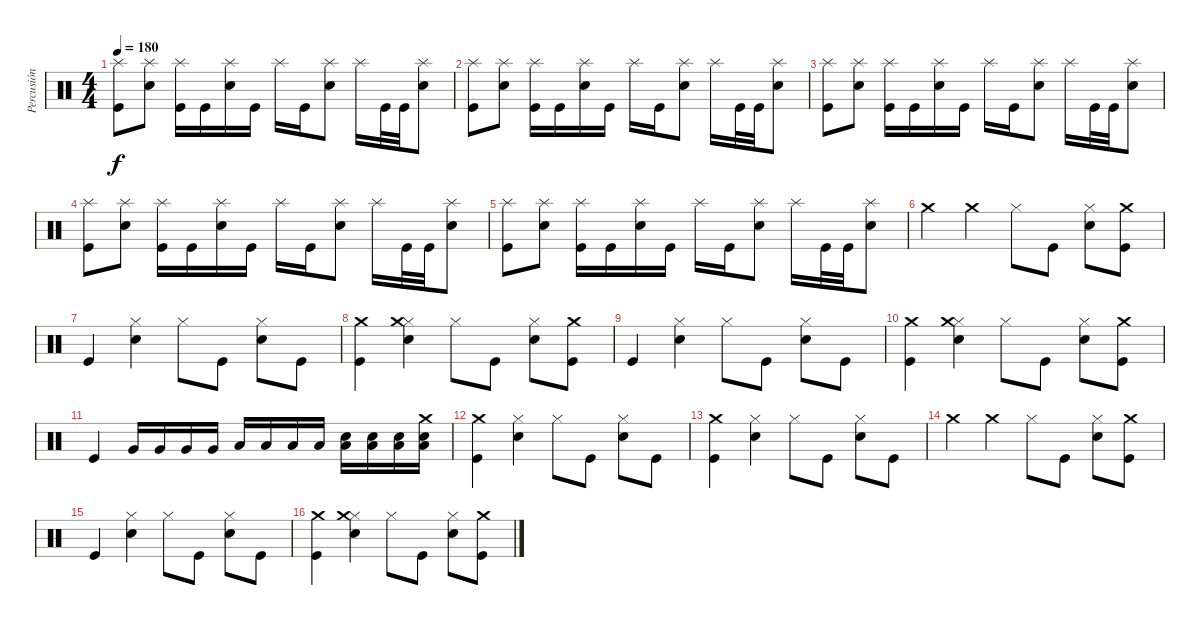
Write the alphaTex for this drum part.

\track ("Percusión" "Percusión") {instrument percussion}
\staff {score}
\articulation defaults
\ts (4 4)
\tempo 180
\clef neutral
\ks c
("Splash (hit)" "Kick (hit)").8{dy f} ("Splash (hit)" "Electric Snare (hit)").8 ("Splash (hit)" "Kick (hit)").16 "Kick (hit)".16 ("Splash (hit)" "Electric Snare (hit)").16 "Kick (hit)".16 "Splash (hit)".16 "Kick (hit)".16 ("Splash (hit)" "Electric Snare (hit)").8 "Splash (hit)".16 "Kick (hit)".32 "Kick (hit)".32 ("Splash (hit)" "Electric Snare (hit)").8 |
("Splash (hit)" "Kick (hit)").8 ("Splash (hit)" "Electric Snare (hit)").8 ("Splash (hit)" "Kick (hit)").16 "Kick (hit)".16 ("Splash (hit)" "Electric Snare (hit)").16 "Kick (hit)".16 "Splash (hit)".16 "Kick (hit)".16 ("Splash (hit)" "Electric Snare (hit)").8 "Splash (hit)".16 "Kick (hit)".32 "Kick (hit)".32 ("Splash (hit)" "Electric Snare (hit)").8 |
("Splash (hit)" "Kick (hit)").8 ("Splash (hit)" "Electric Snare (hit)").8 ("Splash (hit)" "Kick (hit)").16 "Kick (hit)".16 ("Splash (hit)" "Electric Snare (hit)").16 "Kick (hit)".16 "Splash (hit)".16 "Kick (hit)".16 ("Splash (hit)" "Electric Snare (hit)").8 "Splash (hit)".16 "Kick (hit)".32 "Kick (hit)".32 ("Splash (hit)" "Electric Snare (hit)").8 |
("Splash (hit)" "Kick (hit)").8 ("Splash (hit)" "Electric Snare (hit)").8 ("Splash (hit)" "Kick (hit)").16 "Kick (hit)".16 ("Splash (hit)" "Electric Snare (hit)").16 "Kick (hit)".16 "Splash (hit)".16 "Kick (hit)".16 ("Splash (hit)" "Electric Snare (hit)").8 "Splash (hit)".16 "Kick (hit)".32 "Kick (hit)".32 ("Splash (hit)" "Electric Snare (hit)").8 |
("Splash (hit)" "Kick (hit)").8 ("Splash (hit)" "Electric Snare (hit)").8 ("Splash (hit)" "Kick (hit)").16 "Kick (hit)".16 ("Splash (hit)" "Electric Snare (hit)").16 "Kick (hit)".16 "Splash (hit)".16 "Kick (hit)".16 ("Splash (hit)" "Electric Snare (hit)").8 "Splash (hit)".16 "Kick (hit)".32 "Kick (hit)".32 ("Splash (hit)" "Electric Snare (hit)").8 |
"Crash medium (hit)".4 "Crash medium (hit)".4 "Hi-Hat (closed)".8 "Kick (hit)".8 ("Snare (hit) 2" "Hi-Hat (closed)").8 ("Kick (hit)" "Crash medium (hit)").8 |
"Kick (hit)".4 ("Snare (hit) 2" "Hi-Hat (closed)").4 "Hi-Hat (closed)".8 "Kick (hit)".8 ("Snare (hit) 2" "Hi-Hat (closed)").8 "Kick (hit)".8 |
("Kick (hit)" "Crash medium (hit)").4 ("Snare (hit) 2" "Hi-Hat (closed)" "Crash medium (hit)").4 "Hi-Hat (closed)".8 "Kick (hit)".8 ("Snare (hit) 2" "Hi-Hat (closed)").8 ("Kick (hit)" "Crash medium (hit)").8 |
"Kick (hit)".4 ("Snare (hit) 2" "Hi-Hat (closed)").4 "Hi-Hat (closed)".8 "Kick (hit)".8 ("Snare (hit) 2" "Hi-Hat (closed)").8 "Kick (hit)".8 |
("Kick (hit)" "Crash medium (hit)").4 ("Snare (hit) 2" "Hi-Hat (closed)" "Crash medium (hit)").4 "Hi-Hat (closed)".8 "Kick (hit)".8 ("Snare (hit) 2" "Hi-Hat (closed)").8 ("Kick (hit)" "Crash medium (hit)").8 |
"Kick (hit)".4 "Very Low Tom (hit)".16 "Very Low Tom (hit)".16 "Very Low Tom (hit)".16 "Very Low Tom (hit)".16 "Low Tom (hit)".16 "Low Tom (hit)".16 "Low Tom (hit)".16 "Low Tom (hit)".16 ("Electric Snare (hit)" "Low Tom (hit)").16 ("Electric Snare (hit)" "Low Tom (hit)").16 ("Electric Snare (hit)" "Low Tom (hit)").16 ("Electric Snare (hit)" "Low Tom (hit)" "Crash medium (hit)").16 |
("Kick (hit)" "Crash medium (hit)").4 ("Snare (hit) 2" "Hi-Hat (closed)").4 "Hi-Hat (closed)".8 "Kick (hit)".8 ("Snare (hit) 2" "Hi-Hat (closed)").8 "Kick (hit)".8 |
("Kick (hit)" "Crash medium (hit)").4 ("Snare (hit) 2" "Hi-Hat (closed)").4 "Hi-Hat (closed)".8 "Kick (hit)".8 ("Snare (hit) 2" "Hi-Hat (closed)").8 "Kick (hit)".8 |
"Crash medium (hit)".4 "Crash medium (hit)".4 "Hi-Hat (closed)".8 "Kick (hit)".8 ("Snare (hit) 2" "Hi-Hat (closed)").8 ("Kick (hit)" "Crash medium (hit)").8 |
"Kick (hit)".4 ("Snare (hit) 2" "Hi-Hat (closed)").4 "Hi-Hat (closed)".8 "Kick (hit)".8 ("Snare (hit) 2" "Hi-Hat (closed)").8 "Kick (hit)".8 |
("Kick (hit)" "Crash medium (hit)").4 ("Snare (hit) 2" "Hi-Hat (closed)" "Crash medium (hit)").4 "Hi-Hat (closed)".8 "Kick (hit)".8 ("Snare (hit) 2" "Hi-Hat (closed)").8 ("Kick (hit)" "Crash medium (hit)").8
